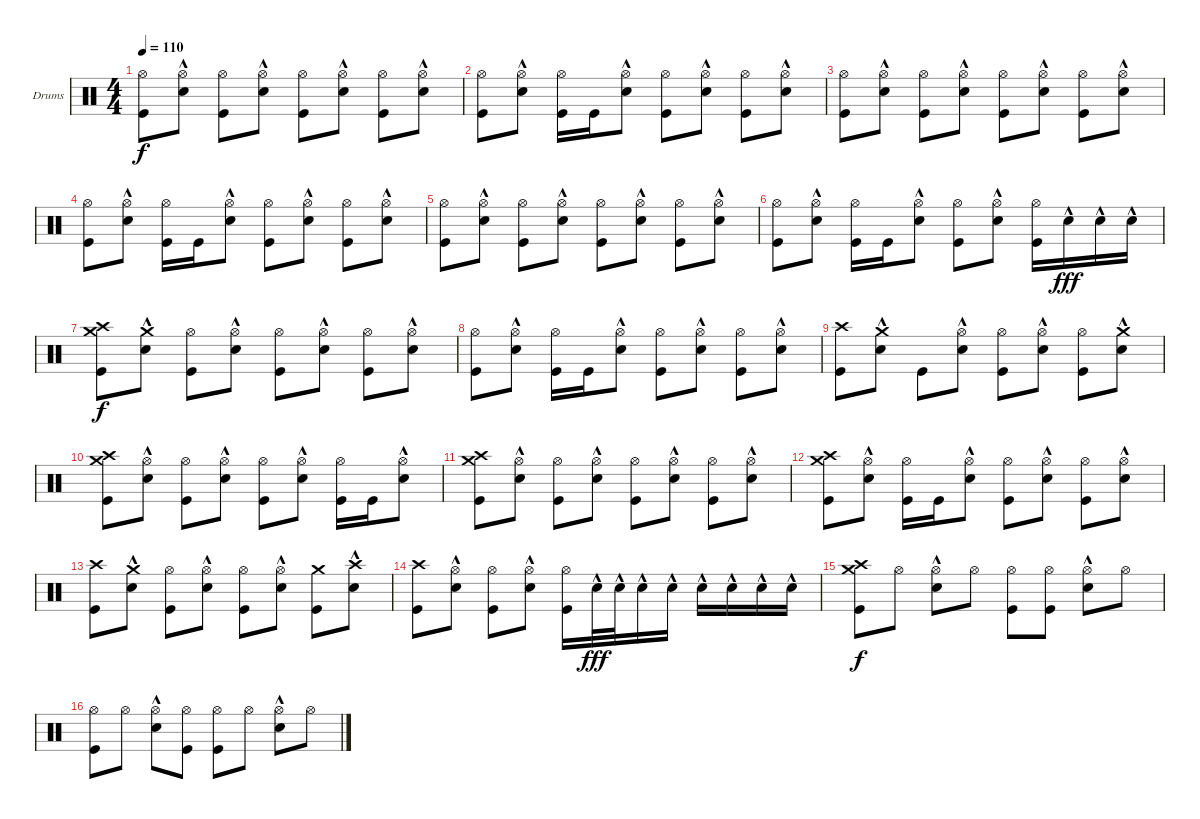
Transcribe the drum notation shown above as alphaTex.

\bracketExtendMode groupsimilarinstruments
\firstSystemTrackNameOrientation horizontal
\otherSystemsTrackNameOrientation horizontal
\track ("Drumkit (Christoph)" "Drums") {instrument percussion}
\staff {score}
\articulation defaults
\ts (4 4)
\tempo 110
\clef neutral
\ks c
("Hi-Hat (open)" "Kick (hit)").8{dy f} ("Hi-Hat (open)" "Snare (hit) 2"{hac}).8 ("Hi-Hat (open)" "Kick (hit)").8 ("Hi-Hat (open)" "Snare (hit) 2"{hac}).8 ("Hi-Hat (open)" "Kick (hit)").8 ("Hi-Hat (open)" "Snare (hit) 2"{hac}).8 ("Hi-Hat (open)" "Kick (hit)").8 ("Hi-Hat (open)" "Snare (hit) 2"{hac}).8 |
("Hi-Hat (open)" "Kick (hit)").8 ("Hi-Hat (open)" "Snare (hit) 2"{hac}).8 ("Hi-Hat (open)" "Kick (hit)").16 "Kick (hit)".16 ("Hi-Hat (open)" "Snare (hit) 2"{hac}).8 ("Hi-Hat (open)" "Kick (hit)").8 ("Hi-Hat (open)" "Snare (hit) 2"{hac}).8 ("Hi-Hat (open)" "Kick (hit)").8 ("Hi-Hat (open)" "Snare (hit) 2"{hac}).8 |
("Hi-Hat (open)" "Kick (hit)").8 ("Hi-Hat (open)" "Snare (hit) 2"{hac}).8 ("Hi-Hat (open)" "Kick (hit)").8 ("Hi-Hat (open)" "Snare (hit) 2"{hac}).8 ("Hi-Hat (open)" "Kick (hit)").8 ("Hi-Hat (open)" "Snare (hit) 2"{hac}).8 ("Hi-Hat (open)" "Kick (hit)").8 ("Hi-Hat (open)" "Snare (hit) 2"{hac}).8 |
("Hi-Hat (open)" "Kick (hit)").8 ("Hi-Hat (open)" "Snare (hit) 2"{hac}).8 ("Hi-Hat (open)" "Kick (hit)").16 "Kick (hit)".16 ("Hi-Hat (open)" "Snare (hit) 2"{hac}).8 ("Hi-Hat (open)" "Kick (hit)").8 ("Hi-Hat (open)" "Snare (hit) 2"{hac}).8 ("Hi-Hat (open)" "Kick (hit)").8 ("Hi-Hat (open)" "Snare (hit) 2"{hac}).8 |
("Hi-Hat (open)" "Kick (hit)").8 ("Hi-Hat (open)" "Snare (hit) 2"{hac}).8 ("Hi-Hat (open)" "Kick (hit)").8 ("Hi-Hat (open)" "Snare (hit) 2"{hac}).8 ("Hi-Hat (open)" "Kick (hit)").8 ("Hi-Hat (open)" "Snare (hit) 2"{hac}).8 ("Hi-Hat (open)" "Kick (hit)").8 ("Hi-Hat (open)" "Snare (hit) 2"{hac}).8 |
("Hi-Hat (open)" "Kick (hit)").8 ("Hi-Hat (open)" "Snare (hit) 2"{hac}).8 ("Hi-Hat (open)" "Kick (hit)").16 "Kick (hit)".16 ("Hi-Hat (open)" "Snare (hit) 2"{hac}).8 ("Hi-Hat (open)" "Kick (hit)").8 ("Hi-Hat (open)" "Snare (hit) 2"{hac}).8 ("Hi-Hat (open)" "Kick (hit)").16 "Snare (hit) 2"{hac}.16{dy fff} "Snare (hit) 2"{hac}.16 "Snare (hit) 2"{hac}.16 |
("Crash medium (hit)" "Kick (hit)" "Crash high (hit)").8{dy f} ("Crash medium (hit)" "Snare (hit) 2"{hac}).8 ("Hi-Hat (open)" "Kick (hit)").8 ("Hi-Hat (open)" "Snare (hit) 2"{hac}).8 ("Hi-Hat (open)" "Kick (hit)").8 ("Hi-Hat (open)" "Snare (hit) 2"{hac}).8 ("Hi-Hat (open)" "Kick (hit)").8 ("Hi-Hat (open)" "Snare (hit) 2"{hac}).8 |
("Hi-Hat (open)" "Kick (hit)").8 ("Hi-Hat (open)" "Snare (hit) 2"{hac}).8 ("Hi-Hat (open)" "Kick (hit)").16 "Kick (hit)".16 ("Hi-Hat (open)" "Snare (hit) 2"{hac}).8 ("Hi-Hat (open)" "Kick (hit)").8 ("Hi-Hat (open)" "Snare (hit) 2"{hac}).8 ("Hi-Hat (open)" "Kick (hit)").8 ("Hi-Hat (open)" "Snare (hit) 2"{hac}).8 |
("Crash high (hit)" "Kick (hit)").8 ("Crash medium (hit)" "Snare (hit) 2"{hac}).8 "Kick (hit)".8 ("Hi-Hat (open)" "Snare (hit) 2"{hac}).8 ("Hi-Hat (open)" "Kick (hit)").8 ("Hi-Hat (open)" "Snare (hit) 2"{hac}).8 ("Hi-Hat (open)" "Kick (hit)").8 ("Crash medium (hit)" "Snare (hit) 2"{hac}).8 |
("Crash medium (hit)" "Kick (hit)" "Crash high (hit)").8 ("Hi-Hat (open)" "Snare (hit) 2"{hac}).8 ("Hi-Hat (open)" "Kick (hit)").8 ("Hi-Hat (open)" "Snare (hit) 2"{hac}).8 ("Hi-Hat (open)" "Kick (hit)").8 ("Hi-Hat (open)" "Snare (hit) 2"{hac}).8 ("Hi-Hat (open)" "Kick (hit)").16 "Kick (hit)".16 ("Hi-Hat (open)" "Snare (hit) 2"{hac}).8 |
("Crash medium (hit)" "Kick (hit)" "Crash high (hit)").8 ("Hi-Hat (open)" "Snare (hit) 2"{hac}).8 ("Hi-Hat (open)" "Kick (hit)").8 ("Hi-Hat (open)" "Snare (hit) 2"{hac}).8 ("Hi-Hat (open)" "Kick (hit)").8 ("Hi-Hat (open)" "Snare (hit) 2"{hac}).8 ("Hi-Hat (open)" "Kick (hit)").8 ("Hi-Hat (open)" "Snare (hit) 2"{hac}).8 |
("Crash medium (hit)" "Kick (hit)" "Crash high (hit)").8 ("Hi-Hat (open)" "Snare (hit) 2"{hac}).8 ("Hi-Hat (open)" "Kick (hit)").16 "Kick (hit)".16 ("Hi-Hat (open)" "Snare (hit) 2"{hac}).8 ("Hi-Hat (open)" "Kick (hit)").8 ("Hi-Hat (open)" "Snare (hit) 2"{hac}).8 ("Hi-Hat (open)" "Kick (hit)").8 ("Hi-Hat (open)" "Snare (hit) 2"{hac}).8 |
("Crash high (hit)" "Kick (hit)").8 ("Crash medium (hit)" "Snare (hit) 2"{hac}).8 ("Hi-Hat (open)" "Kick (hit)").8 ("Hi-Hat (open)" "Snare (hit) 2"{hac}).8 ("Hi-Hat (open)" "Kick (hit)").8 ("Hi-Hat (open)" "Snare (hit) 2"{hac}).8 ("Crash medium (hit)" "Kick (hit)").8 ("Crash high (hit)" "Snare (hit) 2"{hac}).8 |
("Crash high (hit)" "Kick (hit)").8 ("Hi-Hat (open)" "Snare (hit) 2"{hac}).8 ("Hi-Hat (open)" "Kick (hit)").8 ("Hi-Hat (open)" "Snare (hit) 2"{hac}).8 ("Hi-Hat (open)" "Kick (hit)").16 "Snare (hit) 2"{hac}.32{dy fff} "Snare (hit) 2"{hac}.32 "Snare (hit) 2"{hac}.16 "Snare (hit) 2"{hac}.16 "Snare (hit) 2"{hac}.16 "Snare (hit) 2"{hac}.16 "Snare (hit) 2"{hac}.16 "Snare (hit) 2"{hac}.16 |
("Crash medium (hit)" "Kick (hit)" "Crash high (hit)").8{dy f} "Hi-Hat (open)".8 ("Hi-Hat (open)" "Snare (hit) 2"{hac}).8 "Hi-Hat (open)".8 ("Hi-Hat (open)" "Kick (hit)").8 ("Hi-Hat (open)" "Kick (hit)").8 ("Hi-Hat (open)" "Snare (hit) 2"{hac}).8 "Hi-Hat (open)".8 |
("Hi-Hat (open)" "Kick (hit)").8 "Hi-Hat (open)".8 ("Hi-Hat (open)" "Snare (hit) 2"{hac}).8 ("Hi-Hat (open)" "Kick (hit)").8 ("Hi-Hat (open)" "Kick (hit)").8 "Hi-Hat (open)".8 ("Hi-Hat (open)" "Snare (hit) 2"{hac}).8 "Hi-Hat (open)".8
